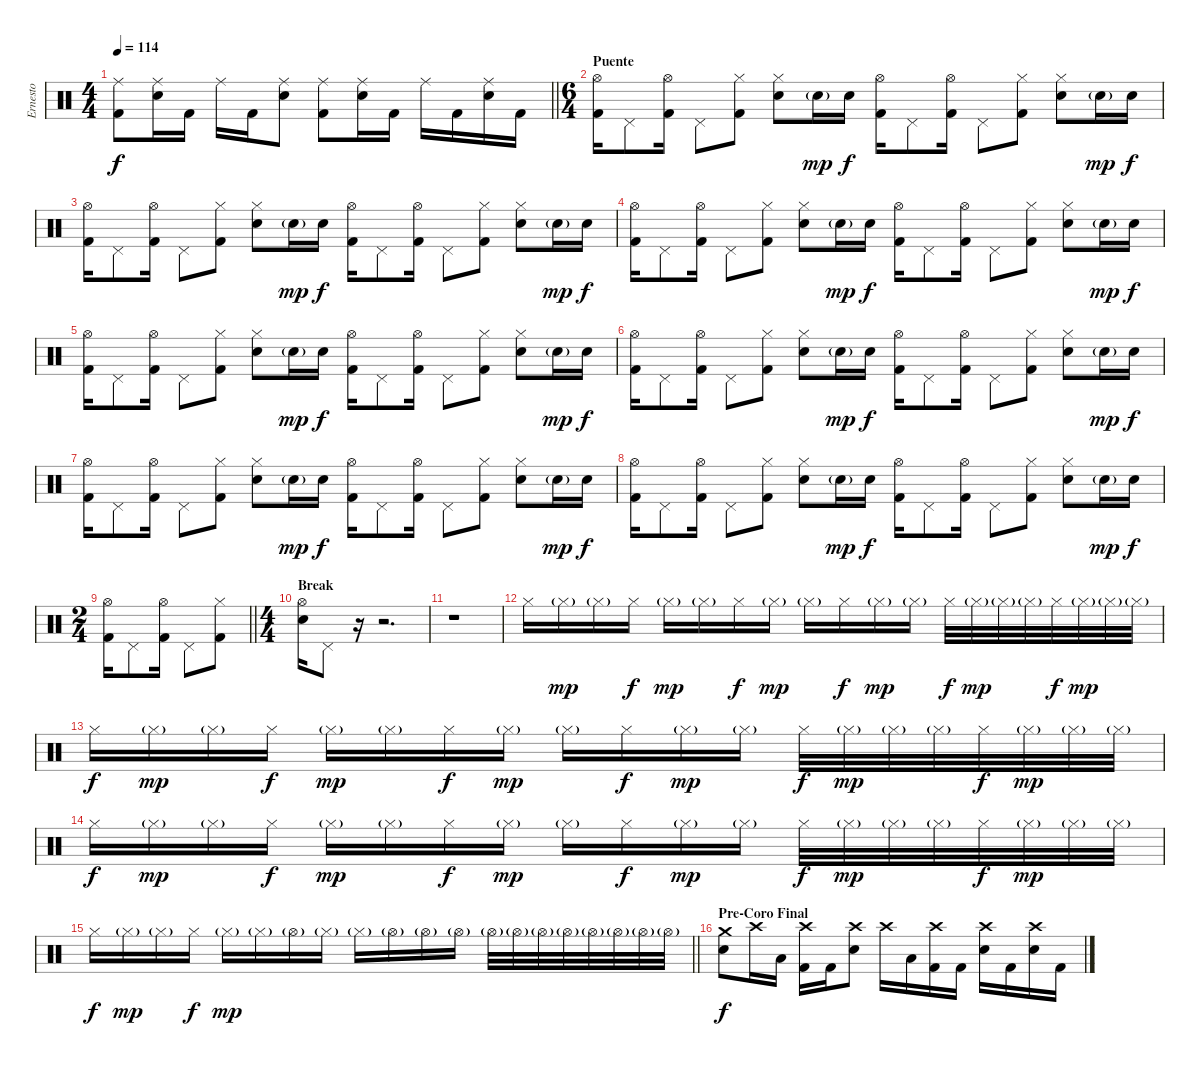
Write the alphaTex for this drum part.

\track ("Ernesto" "Ernesto") {instrument percussion}
\staff
\articulation defaults
\ts (4 4)
\tempo 114
\clef neutral
\barLineRight lightlight
\ks c
("Ride (middle)" "Kick (hit) 2").8{dy f} ("Ride (middle)" "Electric Snare (hit)").16 "Kick (hit) 2".16 "Ride (middle)".16 "Kick (hit) 2".16 ("Ride (middle)" "Electric Snare (hit)").8 ("Ride (middle)" "Kick (hit) 2").8 ("Ride (middle)" "Electric Snare (hit)").16 "Kick (hit) 2".16 "Ride (middle)".16 "Kick (hit) 2".16 ("Ride (middle)" "Electric Snare (hit)").16 "Kick (hit) 2".16 |
\ts (6 4)
\section ("" "Puente")
("Hi-Hat (open)" "Kick (hit) 2").16 "Pedal Hi-Hat (hit)".8 ("Hi-Hat (open)" "Kick (hit) 2").16 "Pedal Hi-Hat (hit)".8 ("Hi-Hat (closed)" "Kick (hit) 2").8 ("Hi-Hat (closed)" "Electric Snare (hit)").8 "Electric Snare (hit)"{g}.16{dy mp} "Electric Snare (hit)".16{dy f} ("Hi-Hat (open)" "Kick (hit) 2").16 "Pedal Hi-Hat (hit)".8 ("Hi-Hat (open)" "Kick (hit) 2").16 "Pedal Hi-Hat (hit)".8 ("Hi-Hat (closed)" "Kick (hit) 2").8 ("Hi-Hat (closed)" "Electric Snare (hit)").8 "Electric Snare (hit)"{g}.16{dy mp} "Electric Snare (hit)".16{dy f} |
("Hi-Hat (open)" "Kick (hit) 2").16 "Pedal Hi-Hat (hit)".8 ("Hi-Hat (open)" "Kick (hit) 2").16 "Pedal Hi-Hat (hit)".8 ("Hi-Hat (closed)" "Kick (hit) 2").8 ("Hi-Hat (closed)" "Electric Snare (hit)").8 "Electric Snare (hit)"{g}.16{dy mp} "Electric Snare (hit)".16{dy f} ("Hi-Hat (open)" "Kick (hit) 2").16 "Pedal Hi-Hat (hit)".8 ("Hi-Hat (open)" "Kick (hit) 2").16 "Pedal Hi-Hat (hit)".8 ("Hi-Hat (closed)" "Kick (hit) 2").8 ("Hi-Hat (closed)" "Electric Snare (hit)").8 "Electric Snare (hit)"{g}.16{dy mp} "Electric Snare (hit)".16{dy f} |
("Hi-Hat (open)" "Kick (hit) 2").16 "Pedal Hi-Hat (hit)".8 ("Hi-Hat (open)" "Kick (hit) 2").16 "Pedal Hi-Hat (hit)".8 ("Hi-Hat (closed)" "Kick (hit) 2").8 ("Hi-Hat (closed)" "Electric Snare (hit)").8 "Electric Snare (hit)"{g}.16{dy mp} "Electric Snare (hit)".16{dy f} ("Hi-Hat (open)" "Kick (hit) 2").16 "Pedal Hi-Hat (hit)".8 ("Hi-Hat (open)" "Kick (hit) 2").16 "Pedal Hi-Hat (hit)".8 ("Hi-Hat (closed)" "Kick (hit) 2").8 ("Hi-Hat (closed)" "Electric Snare (hit)").8 "Electric Snare (hit)"{g}.16{dy mp} "Electric Snare (hit)".16{dy f} |
("Hi-Hat (open)" "Kick (hit) 2").16 "Pedal Hi-Hat (hit)".8 ("Hi-Hat (open)" "Kick (hit) 2").16 "Pedal Hi-Hat (hit)".8 ("Hi-Hat (closed)" "Kick (hit) 2").8 ("Hi-Hat (closed)" "Electric Snare (hit)").8 "Electric Snare (hit)"{g}.16{dy mp} "Electric Snare (hit)".16{dy f} ("Hi-Hat (open)" "Kick (hit) 2").16 "Pedal Hi-Hat (hit)".8 ("Hi-Hat (open)" "Kick (hit) 2").16 "Pedal Hi-Hat (hit)".8 ("Hi-Hat (closed)" "Kick (hit) 2").8 ("Hi-Hat (closed)" "Electric Snare (hit)").8 "Electric Snare (hit)"{g}.16{dy mp} "Electric Snare (hit)".16{dy f} |
("Hi-Hat (open)" "Kick (hit) 2").16 "Pedal Hi-Hat (hit)".8 ("Hi-Hat (open)" "Kick (hit) 2").16 "Pedal Hi-Hat (hit)".8 ("Hi-Hat (closed)" "Kick (hit) 2").8 ("Hi-Hat (closed)" "Electric Snare (hit)").8 "Electric Snare (hit)"{g}.16{dy mp} "Electric Snare (hit)".16{dy f} ("Hi-Hat (open)" "Kick (hit) 2").16 "Pedal Hi-Hat (hit)".8 ("Hi-Hat (open)" "Kick (hit) 2").16 "Pedal Hi-Hat (hit)".8 ("Hi-Hat (closed)" "Kick (hit) 2").8 ("Hi-Hat (closed)" "Electric Snare (hit)").8 "Electric Snare (hit)"{g}.16{dy mp} "Electric Snare (hit)".16{dy f} |
("Hi-Hat (open)" "Kick (hit) 2").16 "Pedal Hi-Hat (hit)".8 ("Hi-Hat (open)" "Kick (hit) 2").16 "Pedal Hi-Hat (hit)".8 ("Hi-Hat (closed)" "Kick (hit) 2").8 ("Hi-Hat (closed)" "Electric Snare (hit)").8 "Electric Snare (hit)"{g}.16{dy mp} "Electric Snare (hit)".16{dy f} ("Hi-Hat (open)" "Kick (hit) 2").16 "Pedal Hi-Hat (hit)".8 ("Hi-Hat (open)" "Kick (hit) 2").16 "Pedal Hi-Hat (hit)".8 ("Hi-Hat (closed)" "Kick (hit) 2").8 ("Hi-Hat (closed)" "Electric Snare (hit)").8 "Electric Snare (hit)"{g}.16{dy mp} "Electric Snare (hit)".16{dy f} |
("Hi-Hat (open)" "Kick (hit) 2").16 "Pedal Hi-Hat (hit)".8 ("Hi-Hat (open)" "Kick (hit) 2").16 "Pedal Hi-Hat (hit)".8 ("Hi-Hat (closed)" "Kick (hit) 2").8 ("Hi-Hat (closed)" "Electric Snare (hit)").8 "Electric Snare (hit)"{g}.16{dy mp} "Electric Snare (hit)".16{dy f} ("Hi-Hat (open)" "Kick (hit) 2").16 "Pedal Hi-Hat (hit)".8 ("Hi-Hat (open)" "Kick (hit) 2").16 "Pedal Hi-Hat (hit)".8 ("Hi-Hat (closed)" "Kick (hit) 2").8 ("Hi-Hat (closed)" "Electric Snare (hit)").8 "Electric Snare (hit)"{g}.16{dy mp} "Electric Snare (hit)".16{dy f} |
\ts (2 4)
\barLineRight lightlight
("Hi-Hat (open)" "Kick (hit) 2").16 "Pedal Hi-Hat (hit)".8 ("Hi-Hat (open)" "Kick (hit) 2").16 "Pedal Hi-Hat (hit)".8 ("Hi-Hat (closed)" "Kick (hit) 2").8 |
\ts (4 4)
\section ("" "Break")
("Hi-Hat (open)" "Electric Snare (hit)").16 "Pedal Hi-Hat (hit)".8 r.16 r.2{d} |
r.1 |
"Hi-Hat (closed)".16 "Hi-Hat (closed)"{g}.16{dy mp} "Hi-Hat (closed)"{g}.16 "Hi-Hat (closed)".16{dy f} "Hi-Hat (closed)"{g}.16{dy mp} "Hi-Hat (closed)"{g}.16 "Hi-Hat (closed)".16{dy f} "Hi-Hat (closed)"{g}.16{dy mp} "Hi-Hat (closed)"{g}.16 "Hi-Hat (closed)".16{dy f} "Hi-Hat (closed)"{g}.16{dy mp} "Hi-Hat (closed)"{g}.16 "Hi-Hat (closed)".32{dy f} "Hi-Hat (closed)"{g}.32{dy mp} "Hi-Hat (closed)"{g}.32 "Hi-Hat (closed)"{g}.32 "Hi-Hat (closed)".32{dy f} "Hi-Hat (closed)"{g}.32{dy mp} "Hi-Hat (closed)"{g}.32 "Hi-Hat (closed)"{g}.32 |
"Hi-Hat (closed)".16{dy f} "Hi-Hat (closed)"{g}.16{dy mp} "Hi-Hat (closed)"{g}.16 "Hi-Hat (closed)".16{dy f} "Hi-Hat (closed)"{g}.16{dy mp} "Hi-Hat (closed)"{g}.16 "Hi-Hat (closed)".16{dy f} "Hi-Hat (closed)"{g}.16{dy mp} "Hi-Hat (closed)"{g}.16 "Hi-Hat (closed)".16{dy f} "Hi-Hat (closed)"{g}.16{dy mp} "Hi-Hat (closed)"{g}.16 "Hi-Hat (closed)".32{dy f} "Hi-Hat (closed)"{g}.32{dy mp} "Hi-Hat (closed)"{g}.32 "Hi-Hat (closed)"{g}.32 "Hi-Hat (closed)".32{dy f} "Hi-Hat (closed)"{g}.32{dy mp} "Hi-Hat (closed)"{g}.32 "Hi-Hat (closed)"{g}.32 |
"Hi-Hat (closed)".16{dy f} "Hi-Hat (closed)"{g}.16{dy mp} "Hi-Hat (closed)"{g}.16 "Hi-Hat (closed)".16{dy f} "Hi-Hat (closed)"{g}.16{dy mp} "Hi-Hat (closed)"{g}.16 "Hi-Hat (closed)".16{dy f} "Hi-Hat (closed)"{g}.16{dy mp} "Hi-Hat (closed)"{g}.16 "Hi-Hat (closed)".16{dy f} "Hi-Hat (closed)"{g}.16{dy mp} "Hi-Hat (closed)"{g}.16 "Hi-Hat (closed)".32{dy f} "Hi-Hat (closed)"{g}.32{dy mp} "Hi-Hat (closed)"{g}.32 "Hi-Hat (closed)"{g}.32 "Hi-Hat (closed)".32{dy f} "Hi-Hat (closed)"{g}.32{dy mp} "Hi-Hat (closed)"{g}.32 "Hi-Hat (closed)"{g}.32 |
\barLineRight lightlight "Hi-Hat (closed)".16{dy f} "Hi-Hat (closed)"{g}.16{dy mp} "Hi-Hat (closed)"{g}.16 "Hi-Hat (closed)".16{dy f} "Hi-Hat (closed)"{g}.16{dy mp} "Hi-Hat (closed)"{g}.16 "Hi-Hat (open)"{g}.16 "Hi-Hat (closed)"{g}.16 "Hi-Hat (closed)"{g}.16 "Hi-Hat (open)"{g}.16 "Hi-Hat (open)"{g}.16 "Hi-Hat (open)"{g}.16 "Hi-Hat (open)"{g}.32 "Hi-Hat (open)"{g}.32 "Hi-Hat (open)"{g}.32 "Hi-Hat (open)"{g}.32 "Hi-Hat (open)"{g}.32 "Hi-Hat (open)"{g}.32 "Hi-Hat (open)"{g}.32 "Hi-Hat (open)"{g}.32
|
\section ("" "Pre-Coro Final")
("Crash medium (hit)" "Electric Snare (hit)").8{dy f} "Crash high (hit)".16 "Low Tom (hit)".16 ("Crash high (hit)" "Kick (hit) 2").16 "Kick (hit) 2".16 ("Crash high (hit)" "Electric Snare (hit)").8 "Crash high (hit)".16 "Low Tom (hit)".16 ("Crash high (hit)" "Kick (hit) 2").16 "Kick (hit) 2".16 ("Crash high (hit)" "Electric Snare (hit)").16 "Kick (hit) 2".16 ("Crash high (hit)" "Electric Snare (hit)").16 "Kick (hit) 2".16
